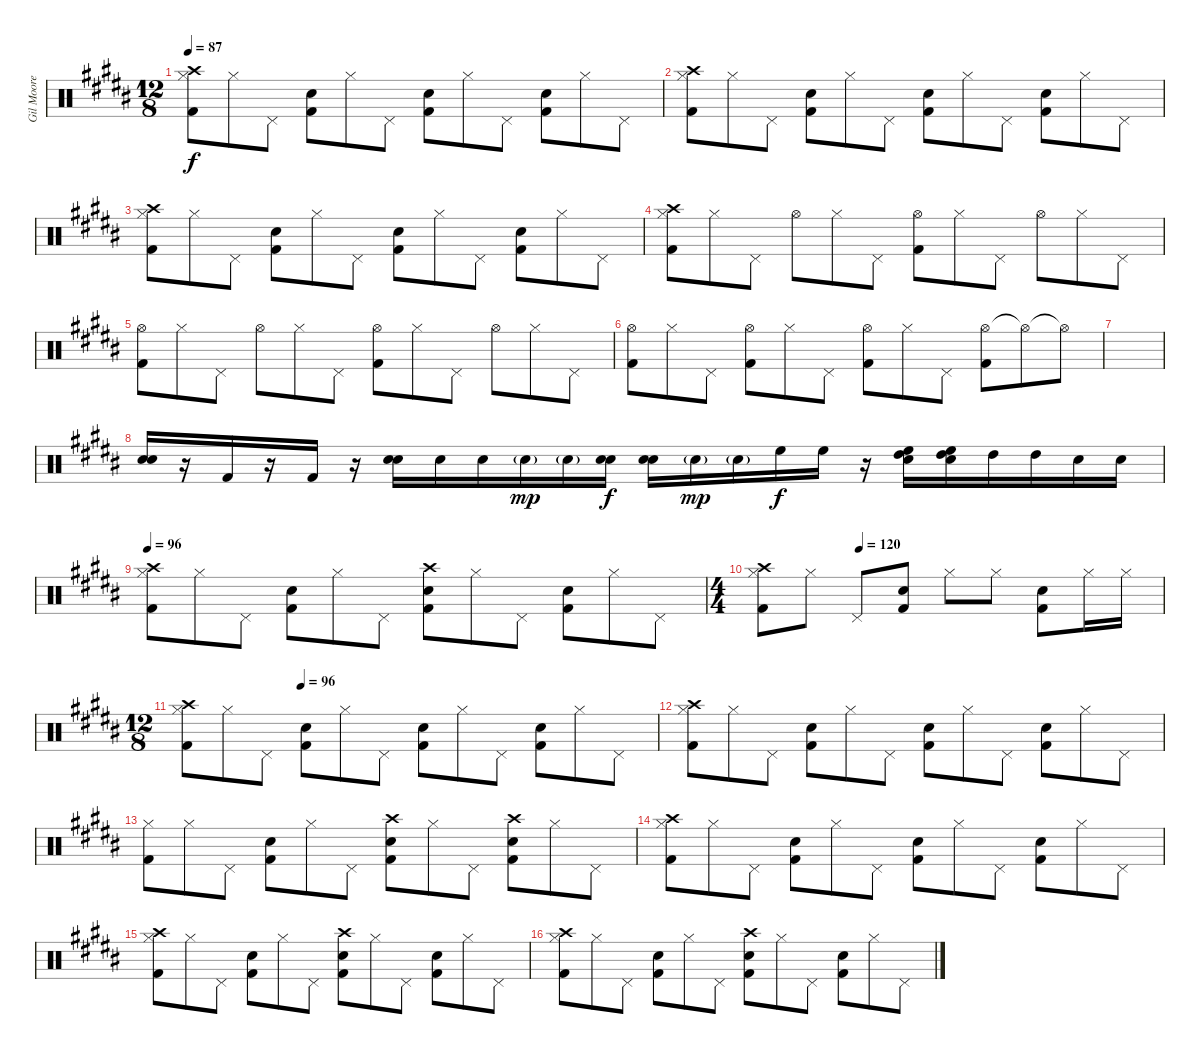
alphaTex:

\track ("Gil Moore" "Gil Moore") {instrument percussion}
\staff {score}
\articulation defaults
\ts (12 8)
\tempo 87
\clef neutral
\ks b
("Kick (hit) 2" "Hi-Hat (closed)" "Crash high (hit)").8{dy f} "Hi-Hat (closed)".8 "Pedal Hi-Hat (hit)".8 ("Snare (hit) 2" "Kick (hit) 2").8 "Hi-Hat (closed)".8 "Pedal Hi-Hat (hit)".8 ("Snare (hit) 2" "Kick (hit) 2").8 "Hi-Hat (closed)".8 "Pedal Hi-Hat (hit)".8 ("Snare (hit) 2" "Kick (hit) 2").8 "Hi-Hat (closed)".8 "Pedal Hi-Hat (hit)".8 |
("Kick (hit) 2" "Hi-Hat (closed)" "Crash high (hit)").8 "Hi-Hat (closed)".8 "Pedal Hi-Hat (hit)".8 ("Snare (hit) 2" "Kick (hit) 2").8 "Hi-Hat (closed)".8 "Pedal Hi-Hat (hit)".8 ("Snare (hit) 2" "Kick (hit) 2").8 "Hi-Hat (closed)".8 "Pedal Hi-Hat (hit)".8 ("Snare (hit) 2" "Kick (hit) 2").8 "Hi-Hat (closed)".8 "Pedal Hi-Hat (hit)".8 |
("Kick (hit) 2" "Hi-Hat (closed)" "Crash high (hit)").8 "Hi-Hat (closed)".8 "Pedal Hi-Hat (hit)".8 ("Snare (hit) 2" "Kick (hit) 2").8 "Hi-Hat (closed)".8 "Pedal Hi-Hat (hit)".8 ("Snare (hit) 2" "Kick (hit) 2").8 "Hi-Hat (closed)".8 "Pedal Hi-Hat (hit)".8 ("Snare (hit) 2" "Kick (hit) 2").8 "Hi-Hat (closed)".8 "Pedal Hi-Hat (hit)".8 |
("Kick (hit) 2" "Hi-Hat (closed)" "Crash high (hit)").8 "Hi-Hat (closed)".8 "Pedal Hi-Hat (hit)".8 "Hi-Hat (open)".8 "Hi-Hat (closed)".8 "Pedal Hi-Hat (hit)".8 ("Hi-Hat (open)" "Kick (hit) 2").8 "Hi-Hat (closed)".8 "Pedal Hi-Hat (hit)".8 "Hi-Hat (open)".8 "Hi-Hat (closed)".8 "Pedal Hi-Hat (hit)".8 |
("Hi-Hat (open)" "Kick (hit) 2").8 "Hi-Hat (closed)".8 "Pedal Hi-Hat (hit)".8 "Hi-Hat (open)".8 "Hi-Hat (closed)".8 "Pedal Hi-Hat (hit)".8 ("Hi-Hat (open)" "Kick (hit) 2").8 "Hi-Hat (closed)".8 "Pedal Hi-Hat (hit)".8 "Hi-Hat (open)".8 "Hi-Hat (closed)".8 "Pedal Hi-Hat (hit)".8 |
("Hi-Hat (open)" "Kick (hit) 2").8 "Hi-Hat (closed)".8 "Pedal Hi-Hat (hit)".8 ("Hi-Hat (open)" "Kick (hit) 2").8 "Hi-Hat (closed)".8 "Pedal Hi-Hat (hit)".8 ("Hi-Hat (open)" "Kick (hit) 2").8 "Hi-Hat (closed)".8 "Pedal Hi-Hat (hit)".8 ("Hi-Hat (open)" "Kick (hit) 2").8 "Hi-Hat (open)"{t}.8 "Hi-Hat (open)"{t}.8 |
|
("Snare (hit) 2" "Electric Snare (hit)").16 r.16 "Kick (hit) 2".16 r.16 "Kick (hit) 2".16 r.16 ("Snare (hit) 2" "Electric Snare (hit)").16 "Electric Snare (hit)".16 "Electric Snare (hit)".16 "Snare (hit) 2"{g}.16{dy mp} "Snare (hit) 2"{g}.16 ("Snare (hit) 2" "Electric Snare (hit)").16{dy f} ("Snare (hit) 2" "Electric Snare (hit)").16 "Snare (hit) 2"{g}.16{dy mp} "Snare (hit) 2"{g}.16 "High Floor Tom (hit)".16{dy f} "High Floor Tom (hit)".16 r.16 ("High Floor Tom (hit)" "High Tom (hit)" "Electric Snare (hit)").16 ("High Floor Tom (hit)" "High Tom (hit)" "Electric Snare (hit)").16 "High Tom (hit)".16 "High Tom (hit)".16 "Electric Snare (hit)".16 "Electric Snare (hit)".16 |
\tempo 96
("Kick (hit) 2" "Hi-Hat (closed)" "Crash high (hit)").8 "Hi-Hat (closed)".8 "Pedal Hi-Hat (hit)".8 ("Snare (hit) 2" "Kick (hit) 2").8 "Hi-Hat (closed)".8 "Pedal Hi-Hat (hit)".8 ("Snare (hit) 2" "Kick (hit) 2" "Crash high (hit)").8 "Hi-Hat (closed)".8 "Pedal Hi-Hat (hit)".8 ("Snare (hit) 2" "Kick (hit) 2").8 "Hi-Hat (closed)".8 "Pedal Hi-Hat (hit)".8 |
\ts (4 4)
\tempo (120 0.25)
("Kick (hit) 2" "Hi-Hat (closed)" "Crash high (hit)").8 "Hi-Hat (closed)".8 "Pedal Hi-Hat (hit)".8 ("Snare (hit) 2" "Kick (hit) 2").8 "Hi-Hat (closed)".8 "Hi-Hat (closed)".8 ("Snare (hit) 2" "Kick (hit) 2").8 "Hi-Hat (closed)".16 "Hi-Hat (closed)".16 |
\ts (12 8)
\tempo (96 0.25)
("Kick (hit) 2" "Hi-Hat (closed)" "Crash high (hit)").8 "Hi-Hat (closed)".8 "Pedal Hi-Hat (hit)".8 ("Snare (hit) 2" "Kick (hit) 2").8 "Hi-Hat (closed)".8 "Pedal Hi-Hat (hit)".8 ("Snare (hit) 2" "Kick (hit) 2").8 "Hi-Hat (closed)".8 "Pedal Hi-Hat (hit)".8 ("Snare (hit) 2" "Kick (hit) 2").8 "Hi-Hat (closed)".8 "Pedal Hi-Hat (hit)".8 |
("Kick (hit) 2" "Hi-Hat (closed)" "Crash high (hit)").8 "Hi-Hat (closed)".8 "Pedal Hi-Hat (hit)".8 ("Snare (hit) 2" "Kick (hit) 2").8 "Hi-Hat (closed)".8 "Pedal Hi-Hat (hit)".8 ("Snare (hit) 2" "Kick (hit) 2").8 "Hi-Hat (closed)".8 "Pedal Hi-Hat (hit)".8 ("Snare (hit) 2" "Kick (hit) 2").8 "Hi-Hat (closed)".8 "Pedal Hi-Hat (hit)".8 |
("Kick (hit) 2" "Hi-Hat (closed)").8 "Hi-Hat (closed)".8 "Pedal Hi-Hat (hit)".8 ("Snare (hit) 2" "Kick (hit) 2").8 "Hi-Hat (closed)".8 "Pedal Hi-Hat (hit)".8 ("Snare (hit) 2" "Kick (hit) 2" "Crash high (hit)").8 "Hi-Hat (closed)".8 "Pedal Hi-Hat (hit)".8 ("Snare (hit) 2" "Kick (hit) 2" "Crash high (hit)").8 "Hi-Hat (closed)".8 "Pedal Hi-Hat (hit)".8 |
("Kick (hit) 2" "Hi-Hat (closed)" "Crash high (hit)").8 "Hi-Hat (closed)".8 "Pedal Hi-Hat (hit)".8 ("Snare (hit) 2" "Kick (hit) 2").8 "Hi-Hat (closed)".8 "Pedal Hi-Hat (hit)".8 ("Snare (hit) 2" "Kick (hit) 2").8 "Hi-Hat (closed)".8 "Pedal Hi-Hat (hit)".8 ("Snare (hit) 2" "Kick (hit) 2").8 "Hi-Hat (closed)".8 "Pedal Hi-Hat (hit)".8 |
("Kick (hit) 2" "Hi-Hat (closed)" "Crash high (hit)").8 "Hi-Hat (closed)".8 "Pedal Hi-Hat (hit)".8 ("Snare (hit) 2" "Kick (hit) 2").8 "Hi-Hat (closed)".8 "Pedal Hi-Hat (hit)".8 ("Snare (hit) 2" "Kick (hit) 2" "Crash high (hit)").8 "Hi-Hat (closed)".8 "Pedal Hi-Hat (hit)".8 ("Snare (hit) 2" "Kick (hit) 2").8 "Hi-Hat (closed)".8 "Pedal Hi-Hat (hit)".8 |
("Kick (hit) 2" "Hi-Hat (closed)" "Crash high (hit)").8 "Hi-Hat (closed)".8 "Pedal Hi-Hat (hit)".8 ("Snare (hit) 2" "Kick (hit) 2").8 "Hi-Hat (closed)".8 "Pedal Hi-Hat (hit)".8 ("Snare (hit) 2" "Kick (hit) 2" "Crash high (hit)").8 "Hi-Hat (closed)".8 "Pedal Hi-Hat (hit)".8 ("Snare (hit) 2" "Kick (hit) 2").8 "Hi-Hat (closed)".8 "Pedal Hi-Hat (hit)".8
